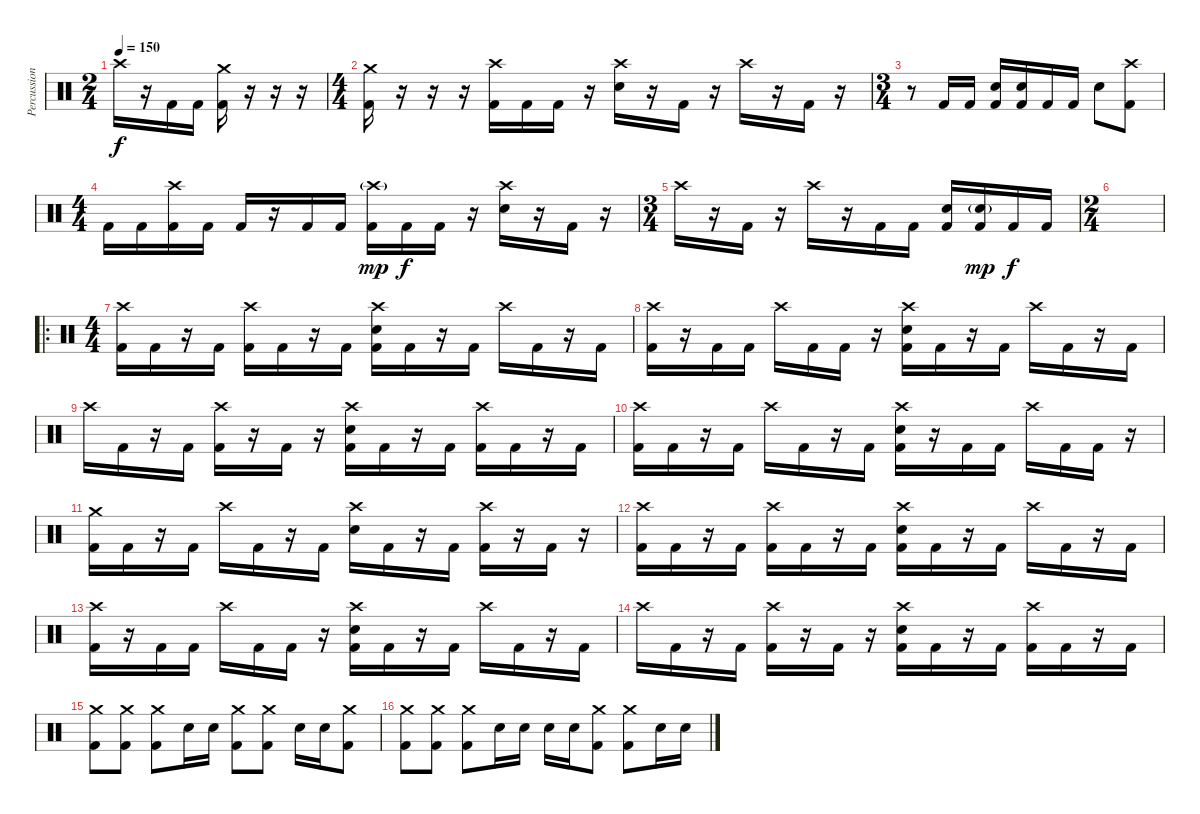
\track ("Percussion" "Percussion") {instrument percussion}
\staff {score}
\articulation defaults
\ts (2 4)
\tempo 150
\clef neutral
\ks c "Crash high (hit)".16{dy f}
r.16 "Kick (hit) 2".16 "Kick (hit) 2".16 ("Crash medium (hit)" "Kick (hit) 2").16 r.16 r.16 r.16 |
\ts (4 4)
("Crash medium (hit)" "Kick (hit) 2").16 r.16 r.16 r.16 ("Crash high (hit)" "Kick (hit) 2").16 "Kick (hit) 2".16 "Kick (hit) 2".16 r.16 ("Crash high (hit)" "Electric Snare (hit)").16 r.16 "Kick (hit) 2".16 r.16 "Crash high (hit)".16 r.16 "Kick (hit) 2".16 r.16 |
\ts (3 4)
r.8 "Kick (hit) 2".16 "Kick (hit) 2".16 ("Electric Snare (hit)" "Kick (hit) 2").16 ("Electric Snare (hit)" "Kick (hit) 2").16 "Kick (hit) 2".16 "Kick (hit) 2".16 "Electric Snare (hit)".8 ("Crash high (hit)" "Kick (hit) 2").8 |
\ts (4 4)
"Kick (hit) 2".16 "Kick (hit) 2".16 ("Crash high (hit)" "Kick (hit) 2").16 "Kick (hit) 2".16 "Kick (hit) 2".16 r.16 "Kick (hit) 2".16 "Kick (hit) 2".16 ("Crash high (hit)"{g} "Kick (hit) 2").16{dy mp} "Kick (hit) 2".16{dy f} "Kick (hit) 2".16 r.16 ("Crash high (hit)" "Electric Snare (hit)").16 r.16 "Kick (hit) 2".16 r.16 |
\ts (3 4)
"Crash high (hit)".16 r.16 "Kick (hit) 2".16 r.16 "Crash high (hit)".16 r.16 "Kick (hit) 2".16 "Kick (hit) 2".16 ("Electric Snare (hit)" "Kick (hit) 2").16 ("Electric Snare (hit)"{g} "Kick (hit) 2").16{dy mp} "Kick (hit) 2".16{dy f} "Kick (hit) 2".16 |
\ts (2 4)
|
\ro
\ts (4 4)
("Crash high (hit)" "Kick (hit) 2").16 "Kick (hit) 2".16 r.16 "Kick (hit) 2".16 ("Crash high (hit)" "Kick (hit) 2").16 "Kick (hit) 2".16 r.16 "Kick (hit) 2".16 ("Crash high (hit)" "Electric Snare (hit)" "Kick (hit) 2").16 "Kick (hit) 2".16 r.16 "Kick (hit) 2".16 "Crash high (hit)".16 "Kick (hit) 2".16 r.16 "Kick (hit) 2".16 |
("Crash high (hit)" "Kick (hit) 2").16 r.16 "Kick (hit) 2".16 "Kick (hit) 2".16 "Crash high (hit)".16 "Kick (hit) 2".16 "Kick (hit) 2".16 r.16 ("Crash high (hit)" "Electric Snare (hit)" "Kick (hit) 2").16 "Kick (hit) 2".16 r.16 "Kick (hit) 2".16 "Crash high (hit)".16 "Kick (hit) 2".16 r.16 "Kick (hit) 2".16 |
"Crash high (hit)".16 "Kick (hit) 2".16 r.16 "Kick (hit) 2".16 ("Crash high (hit)" "Kick (hit) 2").16 r.16 "Kick (hit) 2".16 r.16 ("Crash high (hit)" "Electric Snare (hit)" "Kick (hit) 2").16 "Kick (hit) 2".16 r.16 "Kick (hit) 2".16 ("Crash high (hit)" "Kick (hit) 2").16 "Kick (hit) 2".16 r.16 "Kick (hit) 2".16 |
("Crash high (hit)" "Kick (hit) 2").16 "Kick (hit) 2".16 r.16 "Kick (hit) 2".16 "Crash high (hit)".16 "Kick (hit) 2".16 r.16 "Kick (hit) 2".16 ("Crash high (hit)" "Electric Snare (hit)" "Kick (hit) 2").16 r.16 "Kick (hit) 2".16 "Kick (hit) 2".16 "Crash high (hit)".16 "Kick (hit) 2".16 "Kick (hit) 2".16 r.16 |
("Crash medium (hit)" "Kick (hit) 2").16 "Kick (hit) 2".16 r.16 "Kick (hit) 2".16 "Crash high (hit)".16 "Kick (hit) 2".16 r.16 "Kick (hit) 2".16 ("Crash high (hit)" "Electric Snare (hit)").16 "Kick (hit) 2".16 r.16 "Kick (hit) 2".16 ("Crash high (hit)" "Kick (hit) 2").16 r.16 "Kick (hit) 2".16 r.16 |
("Crash high (hit)" "Kick (hit) 2").16 "Kick (hit) 2".16 r.16 "Kick (hit) 2".16 ("Crash high (hit)" "Kick (hit) 2").16 "Kick (hit) 2".16 r.16 "Kick (hit) 2".16 ("Crash high (hit)" "Electric Snare (hit)" "Kick (hit) 2").16 "Kick (hit) 2".16 r.16 "Kick (hit) 2".16 "Crash high (hit)".16 "Kick (hit) 2".16 r.16 "Kick (hit) 2".16 |
("Crash high (hit)" "Kick (hit) 2").16 r.16 "Kick (hit) 2".16 "Kick (hit) 2".16 "Crash high (hit)".16 "Kick (hit) 2".16 "Kick (hit) 2".16 r.16 ("Crash high (hit)" "Electric Snare (hit)" "Kick (hit) 2").16 "Kick (hit) 2".16 r.16 "Kick (hit) 2".16 "Crash high (hit)".16 "Kick (hit) 2".16 r.16 "Kick (hit) 2".16 |
"Crash high (hit)".16 "Kick (hit) 2".16 r.16 "Kick (hit) 2".16 ("Crash high (hit)" "Kick (hit) 2").16 r.16 "Kick (hit) 2".16 r.16 ("Crash high (hit)" "Electric Snare (hit)" "Kick (hit) 2").16 "Kick (hit) 2".16 r.16 "Kick (hit) 2".16 ("Crash high (hit)" "Kick (hit) 2").16 "Kick (hit) 2".16 r.16 "Kick (hit) 2".16 |
("Crash medium (hit)" "Kick (hit) 2").8 ("Crash medium (hit)" "Kick (hit) 2").8 ("Crash medium (hit)" "Kick (hit) 2").8 "Electric Snare (hit)".16 "Electric Snare (hit)".16 ("Crash medium (hit)" "Kick (hit) 2").8 ("Crash medium (hit)" "Kick (hit) 2").8 "Electric Snare (hit)".16 "Electric Snare (hit)".16 ("Crash medium (hit)" "Kick (hit) 2").8 |
("Crash medium (hit)" "Kick (hit) 2").8 ("Crash medium (hit)" "Kick (hit) 2").8 ("Crash medium (hit)" "Kick (hit) 2").8 "Electric Snare (hit)".16 "Electric Snare (hit)".16 "Electric Snare (hit)".16 "Electric Snare (hit)".16 ("Crash medium (hit)" "Kick (hit) 2").8 ("Crash medium (hit)" "Kick (hit) 2").8 "Electric Snare (hit)".16 "Electric Snare (hit)".16
